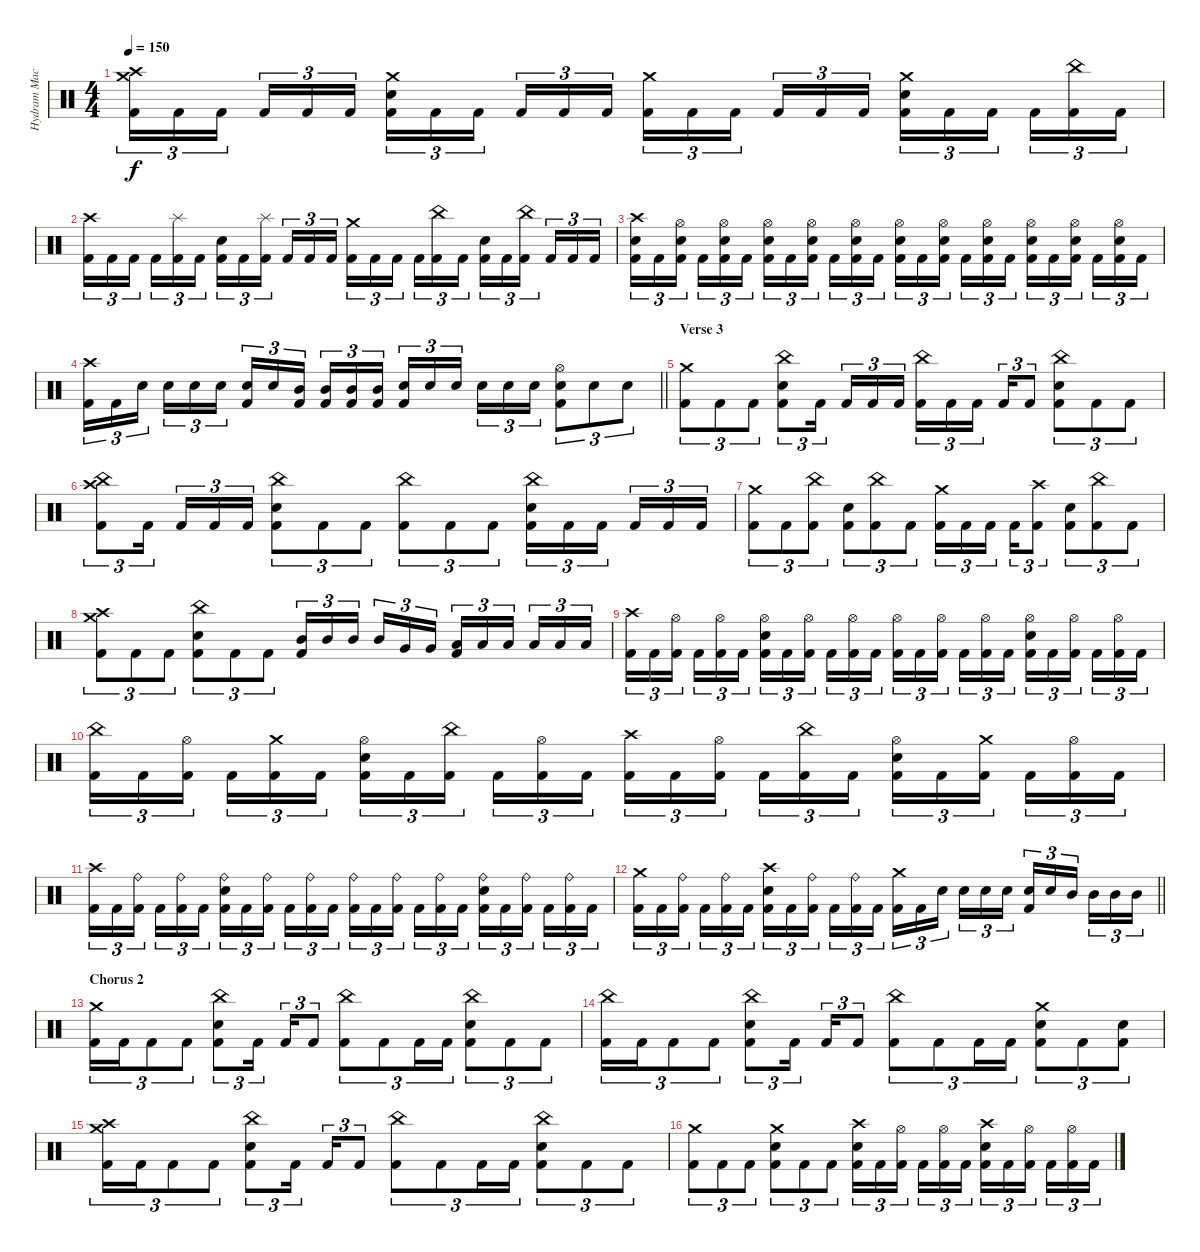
\track ("Hydram Machine" "Hydram Mac") {instrument percussion}
\staff {score}
\articulation defaults
\ts (4 4)
\tempo 150
\clef neutral
\ks c
("Crash medium (hit)" "Crash high (hit)" "Kick (hit) 2").16{tu (3 2) dy f} "Kick (hit) 2".16{tu (3 2)} "Kick (hit) 2".16{tu (3 2) beam splitsecondary} "Kick (hit) 2".16{tu (3 2)} "Kick (hit) 2".16{tu (3 2)} "Kick (hit) 2".16{tu (3 2)} ("Crash medium (hit)" "Electric Snare (hit)" "Kick (hit) 2").16{tu (3 2)} "Kick (hit) 2".16{tu (3 2)} "Kick (hit) 2".16{tu (3 2) beam splitsecondary} "Kick (hit) 2".16{tu (3 2)} "Kick (hit) 2".16{tu (3 2)} "Kick (hit) 2".16{tu (3 2)} ("Crash medium (hit)" "Kick (hit) 2").16{tu (3 2)} "Kick (hit) 2".16{tu (3 2)} "Kick (hit) 2".16{tu (3 2) beam splitsecondary} "Kick (hit) 2".16{tu (3 2)} "Kick (hit) 2".16{tu (3 2)} "Kick (hit) 2".16{tu (3 2)} ("Crash medium (hit)" "Electric Snare (hit)" "Kick (hit) 2").16{tu (3 2)} "Kick (hit) 2".16{tu (3 2)} "Kick (hit) 2".16{tu (3 2) beam splitsecondary} "Kick (hit) 2".16{tu (3 2)} ("China (hit)" "Kick (hit) 2").16{tu (3 2)} "Kick (hit) 2".16{tu (3 2)} |
("Crash high (hit)" "Kick (hit) 2").16{tu (3 2)} "Kick (hit) 2".16{tu (3 2)} "Kick (hit) 2".16{tu (3 2) beam splitsecondary} "Kick (hit) 2".16{tu (3 2)} ("Splash (hit)" "Kick (hit) 2").16{tu (3 2)} "Kick (hit) 2".16{tu (3 2)} ("Electric Snare (hit)" "Kick (hit) 2").16{tu (3 2)} "Kick (hit) 2".16{tu (3 2)} ("Splash (hit)" "Kick (hit) 2").16{tu (3 2) beam splitsecondary} "Kick (hit) 2".16{tu (3 2)} "Kick (hit) 2".16{tu (3 2)} "Kick (hit) 2".16{tu (3 2)} ("Crash medium (hit)" "Kick (hit) 2").16{tu (3 2)} "Kick (hit) 2".16{tu (3 2)} "Kick (hit) 2".16{tu (3 2) beam splitsecondary} "Kick (hit) 2".16{tu (3 2)} ("China (hit)" "Kick (hit) 2").16{tu (3 2)} "Kick (hit) 2".16{tu (3 2)} ("Electric Snare (hit)" "Kick (hit) 2").16{tu (3 2)} "Kick (hit) 2".16{tu (3 2)} ("China (hit)" "Kick (hit) 2").16{tu (3 2) beam splitsecondary} "Kick (hit) 2".16{tu (3 2)} "Kick (hit) 2".16{tu (3 2)} "Kick (hit) 2".16{tu (3 2)} |
("Crash high (hit)" "Electric Snare (hit)" "Kick (hit) 2").16{tu (3 2)} "Kick (hit) 2".16{tu (3 2)} ("Hi-Hat (open)" "Electric Snare (hit)" "Kick (hit) 2").16{tu (3 2) beam splitsecondary} "Kick (hit) 2".16{tu (3 2)} ("Hi-Hat (open)" "Electric Snare (hit)" "Kick (hit) 2").16{tu (3 2)} "Kick (hit) 2".16{tu (3 2)} ("Hi-Hat (open)" "Electric Snare (hit)" "Kick (hit) 2").16{tu (3 2)} "Kick (hit) 2".16{tu (3 2)} ("Hi-Hat (open)" "Electric Snare (hit)" "Kick (hit) 2").16{tu (3 2) beam splitsecondary} "Kick (hit) 2".16{tu (3 2)} ("Hi-Hat (open)" "Electric Snare (hit)" "Kick (hit) 2").16{tu (3 2)} "Kick (hit) 2".16{tu (3 2)} ("Hi-Hat (open)" "Electric Snare (hit)" "Kick (hit) 2").16{tu (3 2)} "Kick (hit) 2".16{tu (3 2)} ("Hi-Hat (open)" "Electric Snare (hit)" "Kick (hit) 2").16{tu (3 2) beam splitsecondary} "Kick (hit) 2".16{tu (3 2)} ("Hi-Hat (open)" "Electric Snare (hit)" "Kick (hit) 2").16{tu (3 2)} "Kick (hit) 2".16{tu (3 2)} ("Hi-Hat (open)" "Electric Snare (hit)" "Kick (hit) 2").16{tu (3 2)} "Kick (hit) 2".16{tu (3 2)} ("Hi-Hat (open)" "Electric Snare (hit)" "Kick (hit) 2").16{tu (3 2) beam splitsecondary} "Kick (hit) 2".16{tu (3 2)} ("Hi-Hat (open)" "Electric Snare (hit)" "Kick (hit) 2").16{tu (3 2)} "Kick (hit) 2".16{tu (3 2)} |
\barLineRight lightlight
("Crash high (hit)" "Kick (hit) 2").16{tu (3 2)} "Kick (hit) 2".16{tu (3 2)} "Electric Snare (hit)".16{tu (3 2) beam splitsecondary} "Electric Snare (hit)".16{tu (3 2)} "Electric Snare (hit)".16{tu (3 2)} "Electric Snare (hit)".16{tu (3 2)} ("Electric Snare (hit)" "Kick (hit) 2").16{tu (3 2)} "Electric Snare (hit)".16{tu (3 2)} ("Mid Tom (hit)" "Kick (hit) 2").16{tu (3 2) beam splitsecondary} ("Mid Tom (hit)" "Kick (hit) 2").16{tu (3 2)} ("Mid Tom (hit)" "Kick (hit) 2").16{tu (3 2)} ("Mid Tom (hit)" "Kick (hit) 2").16{tu (3 2)} ("Electric Snare (hit)" "Kick (hit) 2").16{tu (3 2)} "Electric Snare (hit)".16{tu (3 2)} "Electric Snare (hit)".16{tu (3 2) beam splitsecondary} "Electric Snare (hit)".16{tu (3 2)} "Electric Snare (hit)".16{tu (3 2)} "Electric Snare (hit)".16{tu (3 2)} ("Hi-Hat (open)" "Electric Snare (hit)" "Kick (hit) 2").8{tu (3 2)} "Electric Snare (hit)".8{tu (3 2)} "Electric Snare (hit)".8{tu (3 2)} |
\section ("" "Verse 3")
("Crash medium (hit)" "Kick (hit) 2").8{tu (3 2)} "Kick (hit) 2".8{tu (3 2)} "Kick (hit) 2".8{tu (3 2)} ("China (hit)" "Electric Snare (hit)" "Kick (hit) 2").8{tu (3 2)} "Kick (hit) 2".16{tu (3 2) beam splitsecondary} "Kick (hit) 2".16{tu (3 2)} "Kick (hit) 2".16{tu (3 2)} "Kick (hit) 2".16{tu (3 2)} ("China (hit)" "Kick (hit) 2").16{tu (3 2)} "Kick (hit) 2".16{tu (3 2)} "Kick (hit) 2".16{tu (3 2) beam splitsecondary} "Kick (hit) 2".16{tu (3 2)} "Kick (hit) 2".8{tu (3 2)} ("China (hit)" "Electric Snare (hit)" "Kick (hit) 2").8{tu (3 2)} "Kick (hit) 2".8{tu (3 2)} "Kick (hit) 2".8{tu (3 2)} |
("China (hit)" "Crash high (hit)" "Kick (hit) 2").8{tu (3 2)} "Kick (hit) 2".16{tu (3 2) beam splitsecondary} "Kick (hit) 2".16{tu (3 2)} "Kick (hit) 2".16{tu (3 2)} "Kick (hit) 2".16{tu (3 2)} ("China (hit)" "Electric Snare (hit)" "Kick (hit) 2").8{tu (3 2)} "Kick (hit) 2".8{tu (3 2)} "Kick (hit) 2".8{tu (3 2)} ("China (hit)" "Kick (hit) 2").8{tu (3 2)} "Kick (hit) 2".8{tu (3 2)} "Kick (hit) 2".8{tu (3 2)} ("China (hit)" "Electric Snare (hit)" "Kick (hit) 2").16{tu (3 2)} "Kick (hit) 2".16{tu (3 2)} "Kick (hit) 2".16{tu (3 2) beam splitsecondary} "Kick (hit) 2".16{tu (3 2)} "Kick (hit) 2".16{tu (3 2)} "Kick (hit) 2".16{tu (3 2)} |
("Crash medium (hit)" "Kick (hit) 2").8{tu (3 2)} "Kick (hit) 2".8{tu (3 2)} ("China (hit)" "Kick (hit) 2").8{tu (3 2)} ("Electric Snare (hit)" "Kick (hit) 2").8{tu (3 2)} ("China (hit)" "Kick (hit) 2").8{tu (3 2)} "Kick (hit) 2".8{tu (3 2)} ("Crash medium (hit)" "Kick (hit) 2").16{tu (3 2)} "Kick (hit) 2".16{tu (3 2)} "Kick (hit) 2".16{tu (3 2) beam splitsecondary} "Kick (hit) 2".16{tu (3 2)} ("Crash high (hit)" "Kick (hit) 2").8{tu (3 2)} ("Electric Snare (hit)" "Kick (hit) 2").8{tu (3 2)} ("China (hit)" "Kick (hit) 2").8{tu (3 2)} "Kick (hit) 2".8{tu (3 2)} |
("Crash high (hit)" "Crash medium (hit)" "Kick (hit) 2").8{tu (3 2)} "Kick (hit) 2".8{tu (3 2)} "Kick (hit) 2".8{tu (3 2)} ("China (hit)" "Electric Snare (hit)" "Kick (hit) 2").8{tu (3 2)} "Kick (hit) 2".8{tu (3 2)} "Kick (hit) 2".8{tu (3 2)} ("Mid Tom (hit)" "Kick (hit) 2").16{tu (3 2)} "Mid Tom (hit)".16{tu (3 2)} "Mid Tom (hit)".16{tu (3 2) beam splitsecondary} "Mid Tom (hit)".16{tu (3 2)} "Very Low Tom (hit)".16{tu (3 2)} "Very Low Tom (hit)".16{tu (3 2)} ("Low Tom (hit)" "Kick (hit) 2").16{tu (3 2)} "Low Tom (hit)".16{tu (3 2)} "Low Tom (hit)".16{tu (3 2) beam splitsecondary} "Low Tom (hit)".16{tu (3 2)} "Low Floor Tom (hit)".16{tu (3 2)} "Low Floor Tom (hit)".16{tu (3 2)} |
("Crash high (hit)" "Kick (hit) 2").16{tu (3 2)} "Kick (hit) 2".16{tu (3 2)} ("Hi-Hat (open)" "Kick (hit) 2").16{tu (3 2) beam splitsecondary} "Kick (hit) 2".16{tu (3 2)} ("Hi-Hat (open)" "Kick (hit) 2").16{tu (3 2)} "Kick (hit) 2".16{tu (3 2)} ("Hi-Hat (open)" "Electric Snare (hit)" "Kick (hit) 2").16{tu (3 2)} "Kick (hit) 2".16{tu (3 2)} ("Hi-Hat (open)" "Kick (hit) 2").16{tu (3 2) beam splitsecondary} "Kick (hit) 2".16{tu (3 2)} ("Hi-Hat (open)" "Kick (hit) 2").16{tu (3 2)} "Kick (hit) 2".16{tu (3 2)} ("Hi-Hat (open)" "Kick (hit) 2").16{tu (3 2)} "Kick (hit) 2".16{tu (3 2)} ("Hi-Hat (open)" "Kick (hit) 2").16{tu (3 2) beam splitsecondary} "Kick (hit) 2".16{tu (3 2)} ("Hi-Hat (open)" "Kick (hit) 2").16{tu (3 2)} "Kick (hit) 2".16{tu (3 2)} ("Hi-Hat (open)" "Electric Snare (hit)" "Kick (hit) 2").16{tu (3 2)} "Kick (hit) 2".16{tu (3 2)} ("Hi-Hat (open)" "Kick (hit) 2").16{tu (3 2) beam splitsecondary} "Kick (hit) 2".16{tu (3 2)} ("Hi-Hat (open)" "Kick (hit) 2").16{tu (3 2)} "Kick (hit) 2".16{tu (3 2)} |
("China (hit)" "Kick (hit) 2").16{tu (3 2)} "Kick (hit) 2".16{tu (3 2)} ("Hi-Hat (open)" "Kick (hit) 2").16{tu (3 2) beam splitsecondary} "Kick (hit) 2".16{tu (3 2)} ("Crash medium (hit)" "Kick (hit) 2").16{tu (3 2)} "Kick (hit) 2".16{tu (3 2)} ("Hi-Hat (open)" "Electric Snare (hit)" "Kick (hit) 2").16{tu (3 2)} "Kick (hit) 2".16{tu (3 2)} ("China (hit)" "Kick (hit) 2").16{tu (3 2) beam splitsecondary} "Kick (hit) 2".16{tu (3 2)} ("Hi-Hat (open)" "Kick (hit) 2").16{tu (3 2)} "Kick (hit) 2".16{tu (3 2)} ("Crash high (hit)" "Kick (hit) 2").16{tu (3 2)} "Kick (hit) 2".16{tu (3 2)} ("Hi-Hat (open)" "Kick (hit) 2").16{tu (3 2) beam splitsecondary} "Kick (hit) 2".16{tu (3 2)} ("China (hit)" "Kick (hit) 2").16{tu (3 2)} "Kick (hit) 2".16{tu (3 2)} ("Hi-Hat (open)" "Electric Snare (hit)" "Kick (hit) 2").16{tu (3 2)} "Kick (hit) 2".16{tu (3 2)} ("Crash medium (hit)" "Kick (hit) 2").16{tu (3 2) beam splitsecondary} "Kick (hit) 2".16{tu (3 2)} ("Hi-Hat (open)" "Kick (hit) 2").16{tu (3 2)} "Kick (hit) 2".16{tu (3 2)} |
("Crash high (hit)" "Kick (hit) 2").16{tu (3 2)} "Kick (hit) 2".16{tu (3 2)} ("Ride (bell)" "Kick (hit) 2").16{tu (3 2) beam splitsecondary} "Kick (hit) 2".16{tu (3 2)} ("Ride (bell)" "Kick (hit) 2").16{tu (3 2)} "Kick (hit) 2".16{tu (3 2)} ("Ride (bell)" "Electric Snare (hit)" "Kick (hit) 2").16{tu (3 2)} "Kick (hit) 2".16{tu (3 2)} ("Ride (bell)" "Kick (hit) 2").16{tu (3 2) beam splitsecondary} "Kick (hit) 2".16{tu (3 2)} ("Ride (bell)" "Kick (hit) 2").16{tu (3 2)} "Kick (hit) 2".16{tu (3 2)} ("Ride (bell)" "Kick (hit) 2").16{tu (3 2)} "Kick (hit) 2".16{tu (3 2)} ("Ride (bell)" "Kick (hit) 2").16{tu (3 2) beam splitsecondary} "Kick (hit) 2".16{tu (3 2)} ("Ride (bell)" "Kick (hit) 2").16{tu (3 2)} "Kick (hit) 2".16{tu (3 2)} ("Ride (bell)" "Electric Snare (hit)" "Kick (hit) 2").16{tu (3 2)} "Kick (hit) 2".16{tu (3 2)} ("Ride (bell)" "Kick (hit) 2").16{tu (3 2) beam splitsecondary} "Kick (hit) 2".16{tu (3 2)} ("Ride (bell)" "Kick (hit) 2").16{tu (3 2)} "Kick (hit) 2".16{tu (3 2)} |
\barLineRight lightlight
("Crash medium (hit)" "Kick (hit) 2").16{tu (3 2)} "Kick (hit) 2".16{tu (3 2)} ("Ride (bell)" "Kick (hit) 2").16{tu (3 2) beam splitsecondary} "Kick (hit) 2".16{tu (3 2)} ("Ride (bell)" "Kick (hit) 2").16{tu (3 2)} "Kick (hit) 2".16{tu (3 2)} ("Crash high (hit)" "Electric Snare (hit)" "Kick (hit) 2").16{tu (3 2)} "Kick (hit) 2".16{tu (3 2)} ("Ride (bell)" "Kick (hit) 2").16{tu (3 2) beam splitsecondary} "Kick (hit) 2".16{tu (3 2)} ("Ride (bell)" "Kick (hit) 2").16{tu (3 2)} "Kick (hit) 2".16{tu (3 2)} ("Crash medium (hit)" "Kick (hit) 2").16{tu (3 2)} "Kick (hit) 2".16{tu (3 2)} "Electric Snare (hit)".16{tu (3 2) beam splitsecondary} "Electric Snare (hit)".16{tu (3 2)} "Electric Snare (hit)".16{tu (3 2)} "Electric Snare (hit)".16{tu (3 2)} ("Electric Snare (hit)" "Kick (hit) 2").16{tu (3 2)} "Electric Snare (hit)".16{tu (3 2)} "Mid Tom (hit)".16{tu (3 2) beam splitsecondary} "Mid Tom (hit)".16{tu (3 2)} "Mid Tom (hit)".16{tu (3 2)} "Mid Tom (hit)".16{tu (3 2)} |
\section ("" "Chorus 2")
("Crash medium (hit)" "Kick (hit) 2").16{tu (3 2)} "Kick (hit) 2".16{tu (3 2)} "Kick (hit) 2".8{tu (3 2)} "Kick (hit) 2".8{tu (3 2)} ("China (hit)" "Electric Snare (hit)" "Kick (hit) 2").8{tu (3 2)} "Kick (hit) 2".16{tu (3 2) beam splitsecondary} "Kick (hit) 2".16{tu (3 2)} "Kick (hit) 2".8{tu (3 2)} ("China (hit)" "Kick (hit) 2").8{tu (3 2)} "Kick (hit) 2".8{tu (3 2)} "Kick (hit) 2".16{tu (3 2)} "Kick (hit) 2".16{tu (3 2)} ("China (hit)" "Electric Snare (hit)" "Kick (hit) 2").8{tu (3 2)} "Kick (hit) 2".8{tu (3 2)} "Kick (hit) 2".8{tu (3 2)} |
("China (hit)" "Kick (hit) 2").16{tu (3 2)} "Kick (hit) 2".16{tu (3 2)} "Kick (hit) 2".8{tu (3 2)} "Kick (hit) 2".8{tu (3 2)} ("China (hit)" "Electric Snare (hit)" "Kick (hit) 2").8{tu (3 2)} "Kick (hit) 2".16{tu (3 2) beam splitsecondary} "Kick (hit) 2".16{tu (3 2)} "Kick (hit) 2".8{tu (3 2)} ("China (hit)" "Kick (hit) 2").8{tu (3 2)} "Kick (hit) 2".8{tu (3 2)} "Kick (hit) 2".16{tu (3 2)} "Kick (hit) 2".16{tu (3 2)} ("Crash medium (hit)" "Electric Snare (hit)" "Kick (hit) 2").8{tu (3 2)} "Kick (hit) 2".8{tu (3 2)} ("Electric Snare (hit)" "Kick (hit) 2").8{tu (3 2)} |
("Crash medium (hit)" "Crash high (hit)" "Kick (hit) 2").16{tu (3 2)} "Kick (hit) 2".16{tu (3 2)} "Kick (hit) 2".8{tu (3 2)} "Kick (hit) 2".8{tu (3 2)} ("China (hit)" "Electric Snare (hit)" "Kick (hit) 2").8{tu (3 2)} "Kick (hit) 2".16{tu (3 2) beam splitsecondary} "Kick (hit) 2".16{tu (3 2)} "Kick (hit) 2".8{tu (3 2)} ("China (hit)" "Kick (hit) 2").8{tu (3 2)} "Kick (hit) 2".8{tu (3 2)} "Kick (hit) 2".16{tu (3 2)} "Kick (hit) 2".16{tu (3 2)} ("China (hit)" "Electric Snare (hit)" "Kick (hit) 2").8{tu (3 2)} "Kick (hit) 2".8{tu (3 2)} "Kick (hit) 2".8{tu (3 2)} |
("Crash medium (hit)" "Kick (hit) 2").8{tu (3 2)} "Kick (hit) 2".8{tu (3 2)} "Kick (hit) 2".8{tu (3 2)} ("Crash medium (hit)" "Electric Snare (hit)" "Kick (hit) 2").8{tu (3 2)} "Kick (hit) 2".8{tu (3 2)} "Kick (hit) 2".8{tu (3 2)} ("Crash high (hit)" "Electric Snare (hit)" "Kick (hit) 2").16{tu (3 2)} "Kick (hit) 2".16{tu (3 2)} ("Hi-Hat (open)" "Kick (hit) 2").16{tu (3 2) beam splitsecondary} "Kick (hit) 2".16{tu (3 2)} ("Hi-Hat (open)" "Kick (hit) 2").16{tu (3 2)} "Kick (hit) 2".16{tu (3 2)} ("Crash high (hit)" "Electric Snare (hit)" "Kick (hit) 2").16{tu (3 2)} "Kick (hit) 2".16{tu (3 2)} ("Hi-Hat (open)" "Kick (hit) 2").16{tu (3 2) beam splitsecondary} "Kick (hit) 2".16{tu (3 2)} ("Hi-Hat (open)" "Kick (hit) 2").16{tu (3 2)} "Kick (hit) 2".16{tu (3 2)}
